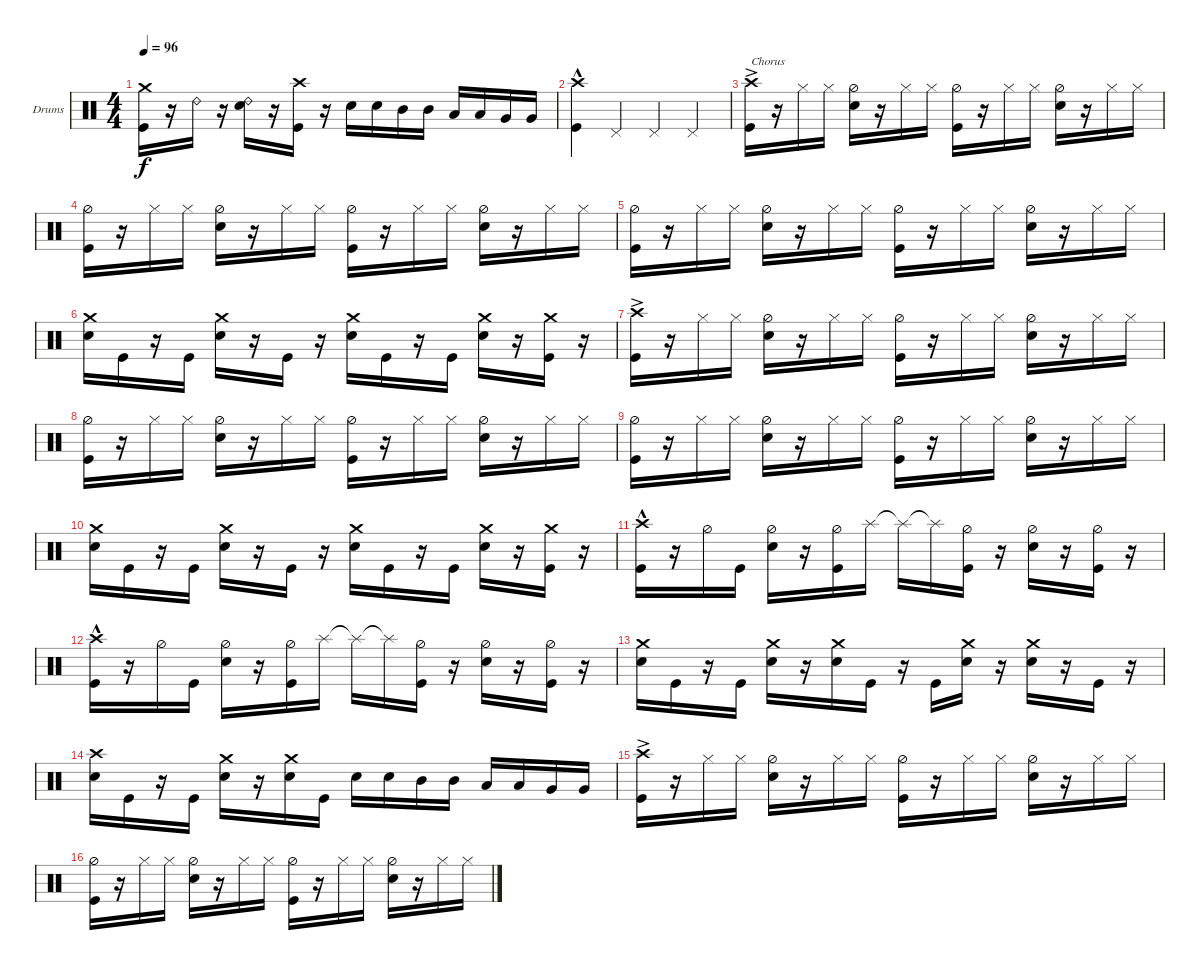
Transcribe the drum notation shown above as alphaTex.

\defaultSystemsLayout 4
\bracketExtendMode groupsimilarinstruments
\firstSystemTrackNameOrientation horizontal
\otherSystemsTrackNameOrientation horizontal
\track ("Stefan Schwarzmann" "Drums") {instrument percussion}
\staff {score}
\articulation defaults
\ts (4 4)
\tempo 96
\clef neutral
\ks c
("Kick (hit)" "Crash medium (hit)").16{dy f} r.16 "Ride (bell) 2".16 r.16 ("Snare (hit) 2" "Ride (bell) 2").16 r.16 ("Kick (hit)" "Crash high (hit)").16 r.16 "Snare (hit) 2".16 "Snare (hit) 2".16 "Mid Tom (hit)".16 "Mid Tom (hit)".16 "Low Tom (hit)".16 "Low Tom (hit)".16 "Very Low Tom (hit)".16 "Very Low Tom (hit)".16 |
("Kick (hit)"{hac} "Crash high (hit)"{hac}).4 "Pedal Hi-Hat (hit)".4 "Pedal Hi-Hat (hit)".4 "Pedal Hi-Hat (hit)".4 |
("Kick (hit)"{ac} "Crash high (hit)"{ac}).16{txt "Chorus"} r.16 "Hi-Hat (closed)".16 "Hi-Hat (closed)".16 ("Snare (hit) 2" "Hi-Hat (half)").16 r.16 "Hi-Hat (closed)".16 "Hi-Hat (closed)".16 ("Kick (hit)" "Hi-Hat (half)").16 r.16 "Hi-Hat (closed)".16 "Hi-Hat (closed)".16 ("Snare (hit) 2" "Hi-Hat (half)").16 r.16 "Hi-Hat (closed)".16 "Hi-Hat (closed)".16 |
("Kick (hit)" "Hi-Hat (half)").16 r.16 "Hi-Hat (closed)".16 "Hi-Hat (closed)".16 ("Snare (hit) 2" "Hi-Hat (half)").16 r.16 "Hi-Hat (closed)".16 "Hi-Hat (closed)".16 ("Kick (hit)" "Hi-Hat (half)").16 r.16 "Hi-Hat (closed)".16 "Hi-Hat (closed)".16 ("Snare (hit) 2" "Hi-Hat (half)").16 r.16 "Hi-Hat (closed)".16 "Hi-Hat (closed)".16 |
("Kick (hit)" "Hi-Hat (half)").16 r.16 "Hi-Hat (closed)".16 "Hi-Hat (closed)".16 ("Snare (hit) 2" "Hi-Hat (half)").16 r.16 "Hi-Hat (closed)".16 "Hi-Hat (closed)".16 ("Kick (hit)" "Hi-Hat (half)").16 r.16 "Hi-Hat (closed)".16 "Hi-Hat (closed)".16 ("Snare (hit) 2" "Hi-Hat (half)").16 r.16 "Hi-Hat (closed)".16 "Hi-Hat (closed)".16 |
("Snare (hit) 2" "Crash medium (hit)").16 "Kick (hit)".16 r.16 "Kick (hit)".16 ("Snare (hit) 2" "Crash medium (hit)").16 r.16 "Kick (hit)".16 r.16 ("Snare (hit) 2" "Crash medium (hit)").16 "Kick (hit)".16 r.16 "Kick (hit)".16 ("Snare (hit) 2" "Crash medium (hit)").16 r.16 ("Kick (hit)" "Crash medium (hit)").16 r.16 |
("Kick (hit)"{ac} "Crash high (hit)"{ac}).16 r.16 "Hi-Hat (closed)".16 "Hi-Hat (closed)".16 ("Snare (hit) 2" "Hi-Hat (half)").16 r.16 "Hi-Hat (closed)".16 "Hi-Hat (closed)".16 ("Kick (hit)" "Hi-Hat (half)").16 r.16 "Hi-Hat (closed)".16 "Hi-Hat (closed)".16 ("Snare (hit) 2" "Hi-Hat (half)").16 r.16 "Hi-Hat (closed)".16 "Hi-Hat (closed)".16 |
("Kick (hit)" "Hi-Hat (half)").16 r.16 "Hi-Hat (closed)".16 "Hi-Hat (closed)".16 ("Snare (hit) 2" "Hi-Hat (half)").16 r.16 "Hi-Hat (closed)".16 "Hi-Hat (closed)".16 ("Kick (hit)" "Hi-Hat (half)").16 r.16 "Hi-Hat (closed)".16 "Hi-Hat (closed)".16 ("Snare (hit) 2" "Hi-Hat (half)").16 r.16 "Hi-Hat (closed)".16 "Hi-Hat (closed)".16 |
("Kick (hit)" "Hi-Hat (half)").16 r.16 "Hi-Hat (closed)".16 "Hi-Hat (closed)".16 ("Snare (hit) 2" "Hi-Hat (half)").16 r.16 "Hi-Hat (closed)".16 "Hi-Hat (closed)".16 ("Kick (hit)" "Hi-Hat (half)").16 r.16 "Hi-Hat (closed)".16 "Hi-Hat (closed)".16 ("Snare (hit) 2" "Hi-Hat (half)").16 r.16 "Hi-Hat (closed)".16 "Hi-Hat (closed)".16 |
("Snare (hit) 2" "Crash medium (hit)").16 "Kick (hit)".16 r.16 "Kick (hit)".16 ("Snare (hit) 2" "Crash medium (hit)").16 r.16 "Kick (hit)".16 r.16 ("Snare (hit) 2" "Crash medium (hit)").16 "Kick (hit)".16 r.16 "Kick (hit)".16 ("Snare (hit) 2" "Crash medium (hit)").16 r.16 ("Kick (hit)" "Crash medium (hit)").16 r.16 |
("Kick (hit)"{hac} "Crash high (hit)"{hac}).16 r.16 "Hi-Hat (half)".16 "Kick (hit)".16 ("Hi-Hat (half)" "Snare (hit) 2").16 r.16 ("Hi-Hat (half)" "Kick (hit)").16 "Splash (hit)".16 "Splash (hit)"{t}.16 "Splash (hit)"{t}.16 ("Hi-Hat (half)" "Kick (hit)").16 r.16 ("Hi-Hat (half)" "Snare (hit) 2").16 r.16 ("Hi-Hat (half)" "Kick (hit)").16 r.16 |
("Kick (hit)"{hac} "Crash high (hit)"{hac}).16 r.16 "Hi-Hat (half)".16 "Kick (hit)".16 ("Hi-Hat (half)" "Snare (hit) 2").16 r.16 ("Hi-Hat (half)" "Kick (hit)").16 "Splash (hit)".16 "Splash (hit)"{t}.16 "Splash (hit)"{t}.16 ("Hi-Hat (half)" "Kick (hit)").16 r.16 ("Hi-Hat (half)" "Snare (hit) 2").16 r.16 ("Hi-Hat (half)" "Kick (hit)").16 r.16 |
("Snare (hit) 2" "Crash medium (hit)").16 "Kick (hit)".16 r.16 "Kick (hit)".16 ("Snare (hit) 2" "Crash medium (hit)").16 r.16 ("Snare (hit) 2" "Crash medium (hit)").16 "Kick (hit)".16 r.16 "Kick (hit)".16 ("Snare (hit) 2" "Crash medium (hit)").16 r.16 ("Snare (hit) 2" "Crash medium (hit)").16 r.16 "Kick (hit)".16 r.16 |
("Snare (hit) 2" "Crash high (hit)").16 "Kick (hit)".16 r.16 "Kick (hit)".16 ("Snare (hit) 2" "Crash medium (hit)").16 r.16 ("Snare (hit) 2" "Crash medium (hit)").16 "Kick (hit)".16 "Snare (hit) 2".16 "Snare (hit) 2".16 "Mid Tom (hit)".16 "Mid Tom (hit)".16 "Low Tom (hit)".16 "Low Tom (hit)".16 "Very Low Tom (hit)".16 "Very Low Tom (hit)".16 |
("Kick (hit)"{ac} "Crash high (hit)"{ac}).16 r.16 "Hi-Hat (closed)".16 "Hi-Hat (closed)".16 ("Snare (hit) 2" "Hi-Hat (half)").16 r.16 "Hi-Hat (closed)".16 "Hi-Hat (closed)".16 ("Kick (hit)" "Hi-Hat (half)").16 r.16 "Hi-Hat (closed)".16 "Hi-Hat (closed)".16 ("Snare (hit) 2" "Hi-Hat (half)").16 r.16 "Hi-Hat (closed)".16 "Hi-Hat (closed)".16 |
("Kick (hit)" "Hi-Hat (half)").16 r.16 "Hi-Hat (closed)".16 "Hi-Hat (closed)".16 ("Snare (hit) 2" "Hi-Hat (half)").16 r.16 "Hi-Hat (closed)".16 "Hi-Hat (closed)".16 ("Kick (hit)" "Hi-Hat (half)").16 r.16 "Hi-Hat (closed)".16 "Hi-Hat (closed)".16 ("Snare (hit) 2" "Hi-Hat (half)").16 r.16 "Hi-Hat (closed)".16 "Hi-Hat (closed)".16
